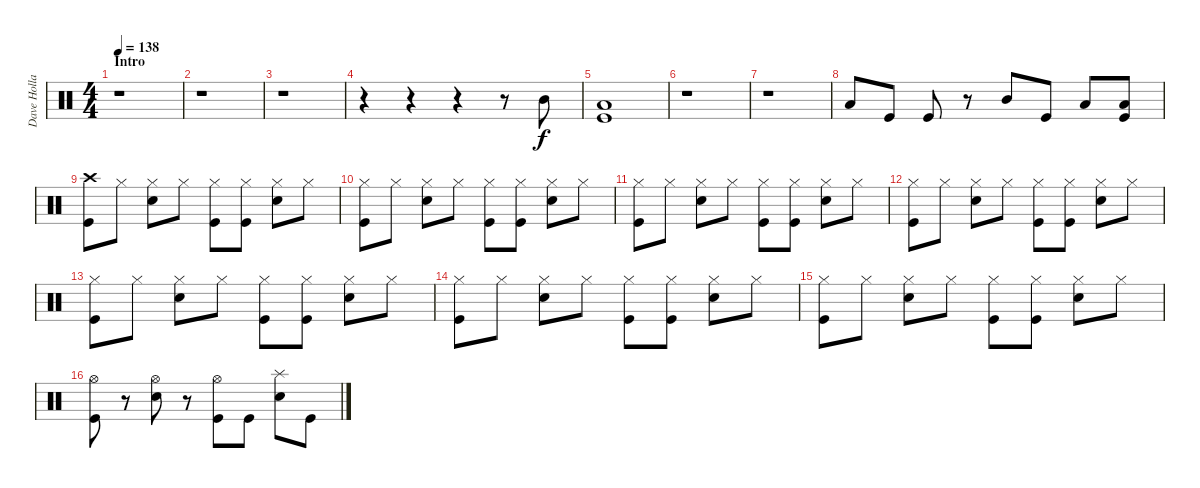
\track ("Dave Holland" "Dave Holla") {instrument percussion}
\staff {score}
\articulation defaults
\ts (4 4)
\section ("" "Intro")
\tempo 138
\clef neutral
\ks c
r.1{dy f} |
r.1 |
r.1 |
r.4 r.4 r.4 r.8 "Mid Tom (hit)".8 |
("Low Tom (hit)" "Kick (hit)").1 |
r.1 |
r.1 |
"Low Tom (hit)".8 "Kick (hit)".8 "Kick (hit)".8 r.8 "Mid Tom (hit)".8 "Kick (hit)".8 "Low Tom (hit)".8 ("Low Tom (hit)" "Kick (hit)").8 |
("Crash high (hit)" "Kick (hit)").8 "Hi-Hat (closed)".8 ("Hi-Hat (closed)" "Electric Snare (hit)").8 "Hi-Hat (closed)".8 ("Hi-Hat (closed)" "Kick (hit)").8 ("Hi-Hat (closed)" "Kick (hit)").8 ("Hi-Hat (closed)" "Electric Snare (hit)").8 "Hi-Hat (closed)".8 |
("Hi-Hat (closed)" "Kick (hit)").8 "Hi-Hat (closed)".8 ("Hi-Hat (closed)" "Electric Snare (hit)").8 "Hi-Hat (closed)".8 ("Hi-Hat (closed)" "Kick (hit)").8 ("Hi-Hat (closed)" "Kick (hit)").8 ("Hi-Hat (closed)" "Electric Snare (hit)").8 "Hi-Hat (closed)".8 |
("Hi-Hat (closed)" "Kick (hit)").8 "Hi-Hat (closed)".8 ("Hi-Hat (closed)" "Electric Snare (hit)").8 "Hi-Hat (closed)".8 ("Hi-Hat (closed)" "Kick (hit)").8 ("Hi-Hat (closed)" "Kick (hit)").8 ("Hi-Hat (closed)" "Electric Snare (hit)").8 "Hi-Hat (closed)".8 |
("Hi-Hat (closed)" "Kick (hit)").8 "Hi-Hat (closed)".8 ("Hi-Hat (closed)" "Electric Snare (hit)").8 "Hi-Hat (closed)".8 ("Hi-Hat (closed)" "Kick (hit)").8 ("Hi-Hat (closed)" "Kick (hit)").8 ("Hi-Hat (closed)" "Electric Snare (hit)").8 "Hi-Hat (closed)".8 |
("Hi-Hat (closed)" "Kick (hit)").8 "Hi-Hat (closed)".8 ("Hi-Hat (closed)" "Electric Snare (hit)").8 "Hi-Hat (closed)".8 ("Hi-Hat (closed)" "Kick (hit)").8 ("Hi-Hat (closed)" "Kick (hit)").8 ("Hi-Hat (closed)" "Electric Snare (hit)").8 "Hi-Hat (closed)".8 |
("Hi-Hat (closed)" "Kick (hit)").8 "Hi-Hat (closed)".8 ("Hi-Hat (closed)" "Electric Snare (hit)").8 "Hi-Hat (closed)".8 ("Hi-Hat (closed)" "Kick (hit)").8 ("Hi-Hat (closed)" "Kick (hit)").8 ("Hi-Hat (closed)" "Electric Snare (hit)").8 "Hi-Hat (closed)".8 |
("Hi-Hat (closed)" "Kick (hit)").8 "Hi-Hat (closed)".8 ("Hi-Hat (closed)" "Electric Snare (hit)").8 "Hi-Hat (closed)".8 ("Hi-Hat (closed)" "Kick (hit)").8 ("Hi-Hat (closed)" "Kick (hit)").8 ("Hi-Hat (closed)" "Electric Snare (hit)").8 "Hi-Hat (closed)".8 |
("Hi-Hat (open)" "Kick (hit)").8 r.8 ("Hi-Hat (open)" "Electric Snare (hit)").8 r.8 ("Hi-Hat (open)" "Kick (hit)").8 "Kick (hit)".8 ("Splash (hit)" "Electric Snare (hit)").8 "Kick (hit)".8
